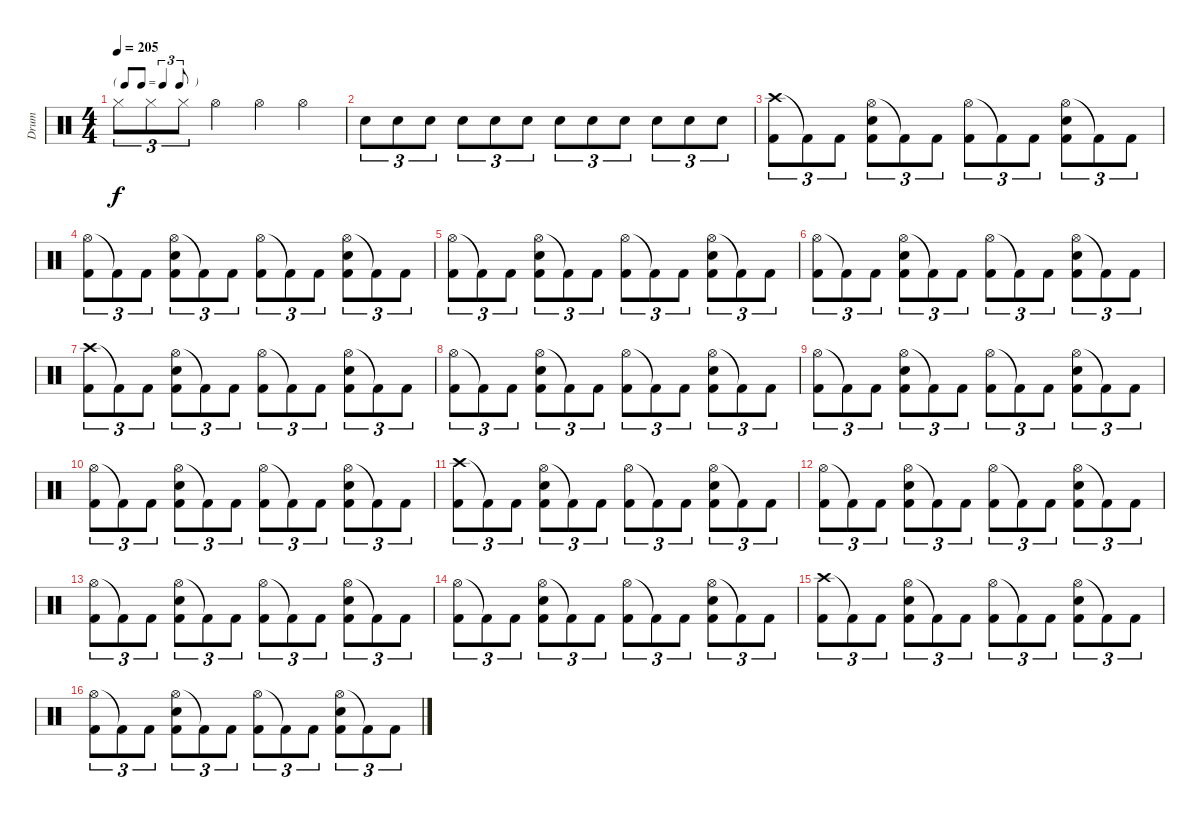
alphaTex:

\track ("Drum" "Drum") {instrument percussion}
\staff {score}
\articulation defaults
\ts (4 4)
\tf triplet8th
\tempo 205
\clef neutral
\ks c "Hi-Hat (closed)".8{tu (3 2) dy f} "Hi-Hat (closed)".8{tu (3 2)} "Hi-Hat (closed)".8{tu (3 2)} "Hi-Hat (open)".4 "Hi-Hat (open)".4 "Hi-Hat (open)".4
|
"Snare (hit) 2".8{tu (3 2)} "Snare (hit) 2".8{tu (3 2)} "Snare (hit) 2".8{tu (3 2)} "Snare (hit) 2".8{tu (3 2)} "Snare (hit) 2".8{tu (3 2)} "Snare (hit) 2".8{tu (3 2)} "Snare (hit) 2".8{tu (3 2)} "Snare (hit) 2".8{tu (3 2)} "Snare (hit) 2".8{tu (3 2)} "Snare (hit) 2".8{tu (3 2)} "Snare (hit) 2".8{tu (3 2)} "Snare (hit) 2".8{tu (3 2)} |
("Crash high (hit)" "Kick (hit) 2").8{tu (3 2)} "Kick (hit) 2"{t}.8{tu (3 2)} "Kick (hit) 2".8{tu (3 2)} ("Hi-Hat (open)" "Snare (hit) 2" "Kick (hit) 2").8{tu (3 2)} "Kick (hit) 2"{t}.8{tu (3 2)} "Kick (hit) 2".8{tu (3 2)} ("Hi-Hat (open)" "Kick (hit) 2").8{tu (3 2)} "Kick (hit) 2"{t}.8{tu (3 2)} "Kick (hit) 2".8{tu (3 2)} ("Hi-Hat (open)" "Snare (hit) 2" "Kick (hit) 2").8{tu (3 2)} "Kick (hit) 2"{t}.8{tu (3 2)} "Kick (hit) 2".8{tu (3 2)} |
("Hi-Hat (open)" "Kick (hit) 2").8{tu (3 2)} "Kick (hit) 2"{t}.8{tu (3 2)} "Kick (hit) 2".8{tu (3 2)} ("Hi-Hat (open)" "Snare (hit) 2" "Kick (hit) 2").8{tu (3 2)} "Kick (hit) 2"{t}.8{tu (3 2)} "Kick (hit) 2".8{tu (3 2)} ("Hi-Hat (open)" "Kick (hit) 2").8{tu (3 2)} "Kick (hit) 2"{t}.8{tu (3 2)} "Kick (hit) 2".8{tu (3 2)} ("Hi-Hat (open)" "Snare (hit) 2" "Kick (hit) 2").8{tu (3 2)} "Kick (hit) 2"{t}.8{tu (3 2)} "Kick (hit) 2".8{tu (3 2)} |
("Hi-Hat (open)" "Kick (hit) 2").8{tu (3 2)} "Kick (hit) 2"{t}.8{tu (3 2)} "Kick (hit) 2".8{tu (3 2)} ("Hi-Hat (open)" "Snare (hit) 2" "Kick (hit) 2").8{tu (3 2)} "Kick (hit) 2"{t}.8{tu (3 2)} "Kick (hit) 2".8{tu (3 2)} ("Hi-Hat (open)" "Kick (hit) 2").8{tu (3 2)} "Kick (hit) 2"{t}.8{tu (3 2)} "Kick (hit) 2".8{tu (3 2)} ("Hi-Hat (open)" "Snare (hit) 2" "Kick (hit) 2").8{tu (3 2)} "Kick (hit) 2"{t}.8{tu (3 2)} "Kick (hit) 2".8{tu (3 2)} |
("Hi-Hat (open)" "Kick (hit) 2").8{tu (3 2)} "Kick (hit) 2"{t}.8{tu (3 2)} "Kick (hit) 2".8{tu (3 2)} ("Hi-Hat (open)" "Snare (hit) 2" "Kick (hit) 2").8{tu (3 2)} "Kick (hit) 2"{t}.8{tu (3 2)} "Kick (hit) 2".8{tu (3 2)} ("Hi-Hat (open)" "Kick (hit) 2").8{tu (3 2)} "Kick (hit) 2"{t}.8{tu (3 2)} "Kick (hit) 2".8{tu (3 2)} ("Hi-Hat (open)" "Snare (hit) 2" "Kick (hit) 2").8{tu (3 2)} "Kick (hit) 2"{t}.8{tu (3 2)} "Kick (hit) 2".8{tu (3 2)} |
("Crash high (hit)" "Kick (hit) 2").8{tu (3 2)} "Kick (hit) 2"{t}.8{tu (3 2)} "Kick (hit) 2".8{tu (3 2)} ("Hi-Hat (open)" "Snare (hit) 2" "Kick (hit) 2").8{tu (3 2)} "Kick (hit) 2"{t}.8{tu (3 2)} "Kick (hit) 2".8{tu (3 2)} ("Hi-Hat (open)" "Kick (hit) 2").8{tu (3 2)} "Kick (hit) 2"{t}.8{tu (3 2)} "Kick (hit) 2".8{tu (3 2)} ("Hi-Hat (open)" "Snare (hit) 2" "Kick (hit) 2").8{tu (3 2)} "Kick (hit) 2"{t}.8{tu (3 2)} "Kick (hit) 2".8{tu (3 2)} |
("Hi-Hat (open)" "Kick (hit) 2").8{tu (3 2)} "Kick (hit) 2"{t}.8{tu (3 2)} "Kick (hit) 2".8{tu (3 2)} ("Hi-Hat (open)" "Snare (hit) 2" "Kick (hit) 2").8{tu (3 2)} "Kick (hit) 2"{t}.8{tu (3 2)} "Kick (hit) 2".8{tu (3 2)} ("Hi-Hat (open)" "Kick (hit) 2").8{tu (3 2)} "Kick (hit) 2"{t}.8{tu (3 2)} "Kick (hit) 2".8{tu (3 2)} ("Hi-Hat (open)" "Snare (hit) 2" "Kick (hit) 2").8{tu (3 2)} "Kick (hit) 2"{t}.8{tu (3 2)} "Kick (hit) 2".8{tu (3 2)} |
("Hi-Hat (open)" "Kick (hit) 2").8{tu (3 2)} "Kick (hit) 2"{t}.8{tu (3 2)} "Kick (hit) 2".8{tu (3 2)} ("Hi-Hat (open)" "Snare (hit) 2" "Kick (hit) 2").8{tu (3 2)} "Kick (hit) 2"{t}.8{tu (3 2)} "Kick (hit) 2".8{tu (3 2)} ("Hi-Hat (open)" "Kick (hit) 2").8{tu (3 2)} "Kick (hit) 2"{t}.8{tu (3 2)} "Kick (hit) 2".8{tu (3 2)} ("Hi-Hat (open)" "Snare (hit) 2" "Kick (hit) 2").8{tu (3 2)} "Kick (hit) 2"{t}.8{tu (3 2)} "Kick (hit) 2".8{tu (3 2)} |
("Hi-Hat (open)" "Kick (hit) 2").8{tu (3 2)} "Kick (hit) 2"{t}.8{tu (3 2)} "Kick (hit) 2".8{tu (3 2)} ("Hi-Hat (open)" "Snare (hit) 2" "Kick (hit) 2").8{tu (3 2)} "Kick (hit) 2"{t}.8{tu (3 2)} "Kick (hit) 2".8{tu (3 2)} ("Hi-Hat (open)" "Kick (hit) 2").8{tu (3 2)} "Kick (hit) 2"{t}.8{tu (3 2)} "Kick (hit) 2".8{tu (3 2)} ("Hi-Hat (open)" "Snare (hit) 2" "Kick (hit) 2").8{tu (3 2)} "Kick (hit) 2"{t}.8{tu (3 2)} "Kick (hit) 2".8{tu (3 2)} |
("Crash high (hit)" "Kick (hit) 2").8{tu (3 2)} "Kick (hit) 2"{t}.8{tu (3 2)} "Kick (hit) 2".8{tu (3 2)} ("Hi-Hat (open)" "Snare (hit) 2" "Kick (hit) 2").8{tu (3 2)} "Kick (hit) 2"{t}.8{tu (3 2)} "Kick (hit) 2".8{tu (3 2)} ("Hi-Hat (open)" "Kick (hit) 2").8{tu (3 2)} "Kick (hit) 2"{t}.8{tu (3 2)} "Kick (hit) 2".8{tu (3 2)} ("Hi-Hat (open)" "Snare (hit) 2" "Kick (hit) 2").8{tu (3 2)} "Kick (hit) 2"{t}.8{tu (3 2)} "Kick (hit) 2".8{tu (3 2)} |
("Hi-Hat (open)" "Kick (hit) 2").8{tu (3 2)} "Kick (hit) 2"{t}.8{tu (3 2)} "Kick (hit) 2".8{tu (3 2)} ("Hi-Hat (open)" "Snare (hit) 2" "Kick (hit) 2").8{tu (3 2)} "Kick (hit) 2"{t}.8{tu (3 2)} "Kick (hit) 2".8{tu (3 2)} ("Hi-Hat (open)" "Kick (hit) 2").8{tu (3 2)} "Kick (hit) 2"{t}.8{tu (3 2)} "Kick (hit) 2".8{tu (3 2)} ("Hi-Hat (open)" "Snare (hit) 2" "Kick (hit) 2").8{tu (3 2)} "Kick (hit) 2"{t}.8{tu (3 2)} "Kick (hit) 2".8{tu (3 2)} |
("Hi-Hat (open)" "Kick (hit) 2").8{tu (3 2)} "Kick (hit) 2"{t}.8{tu (3 2)} "Kick (hit) 2".8{tu (3 2)} ("Hi-Hat (open)" "Snare (hit) 2" "Kick (hit) 2").8{tu (3 2)} "Kick (hit) 2"{t}.8{tu (3 2)} "Kick (hit) 2".8{tu (3 2)} ("Hi-Hat (open)" "Kick (hit) 2").8{tu (3 2)} "Kick (hit) 2"{t}.8{tu (3 2)} "Kick (hit) 2".8{tu (3 2)} ("Hi-Hat (open)" "Snare (hit) 2" "Kick (hit) 2").8{tu (3 2)} "Kick (hit) 2"{t}.8{tu (3 2)} "Kick (hit) 2".8{tu (3 2)} |
("Hi-Hat (open)" "Kick (hit) 2").8{tu (3 2)} "Kick (hit) 2"{t}.8{tu (3 2)} "Kick (hit) 2".8{tu (3 2)} ("Hi-Hat (open)" "Snare (hit) 2" "Kick (hit) 2").8{tu (3 2)} "Kick (hit) 2"{t}.8{tu (3 2)} "Kick (hit) 2".8{tu (3 2)} ("Hi-Hat (open)" "Kick (hit) 2").8{tu (3 2)} "Kick (hit) 2"{t}.8{tu (3 2)} "Kick (hit) 2".8{tu (3 2)} ("Hi-Hat (open)" "Snare (hit) 2" "Kick (hit) 2").8{tu (3 2)} "Kick (hit) 2"{t}.8{tu (3 2)} "Kick (hit) 2".8{tu (3 2)} |
("Crash high (hit)" "Kick (hit) 2").8{tu (3 2)} "Kick (hit) 2"{t}.8{tu (3 2)} "Kick (hit) 2".8{tu (3 2)} ("Hi-Hat (open)" "Snare (hit) 2" "Kick (hit) 2").8{tu (3 2)} "Kick (hit) 2"{t}.8{tu (3 2)} "Kick (hit) 2".8{tu (3 2)} ("Hi-Hat (open)" "Kick (hit) 2").8{tu (3 2)} "Kick (hit) 2"{t}.8{tu (3 2)} "Kick (hit) 2".8{tu (3 2)} ("Hi-Hat (open)" "Snare (hit) 2" "Kick (hit) 2").8{tu (3 2)} "Kick (hit) 2"{t}.8{tu (3 2)} "Kick (hit) 2".8{tu (3 2)} |
("Hi-Hat (open)" "Kick (hit) 2").8{tu (3 2)} "Kick (hit) 2"{t}.8{tu (3 2)} "Kick (hit) 2".8{tu (3 2)} ("Hi-Hat (open)" "Snare (hit) 2" "Kick (hit) 2").8{tu (3 2)} "Kick (hit) 2"{t}.8{tu (3 2)} "Kick (hit) 2".8{tu (3 2)} ("Hi-Hat (open)" "Kick (hit) 2").8{tu (3 2)} "Kick (hit) 2"{t}.8{tu (3 2)} "Kick (hit) 2".8{tu (3 2)} ("Hi-Hat (open)" "Snare (hit) 2" "Kick (hit) 2").8{tu (3 2)} "Kick (hit) 2"{t}.8{tu (3 2)} "Kick (hit) 2".8{tu (3 2)}
